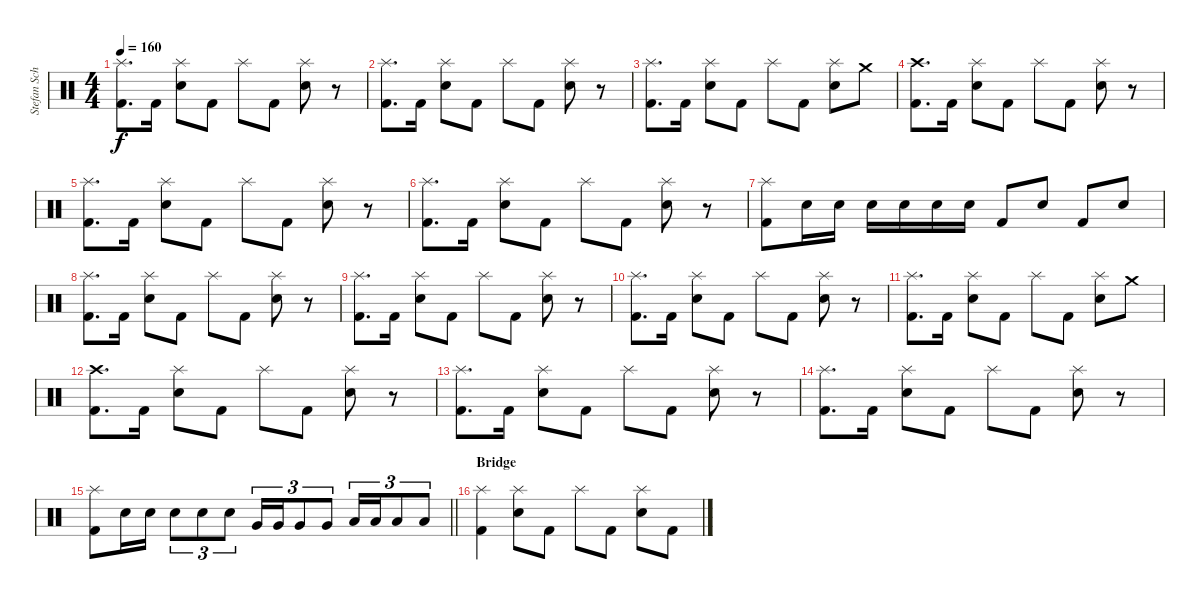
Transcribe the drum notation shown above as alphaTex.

\track ("Stefan Schwarzmann" "Stefan Sch") {instrument percussion}
\staff {score}
\articulation defaults
\ts (4 4)
\tempo 160
\clef neutral
\ks c
("Splash (hit)" "Kick (hit) 2").8{d dy f} "Kick (hit) 2".16 ("Splash (hit)" "Snare (hit) 2").8 "Kick (hit) 2".8 "Splash (hit)".8 "Kick (hit) 2".8 ("Splash (hit)" "Snare (hit) 2").8 r.8 |
("Splash (hit)" "Kick (hit) 2").8{d} "Kick (hit) 2".16 ("Splash (hit)" "Snare (hit) 2").8 "Kick (hit) 2".8 "Splash (hit)".8 "Kick (hit) 2".8 ("Splash (hit)" "Snare (hit) 2").8 r.8 |
("Splash (hit)" "Kick (hit) 2").8{d} "Kick (hit) 2".16 ("Splash (hit)" "Snare (hit) 2").8 "Kick (hit) 2".8 "Splash (hit)".8 "Kick (hit) 2".8 ("Splash (hit)" "Snare (hit) 2").8 "Crash medium (hit)".8 |
("Crash high (hit)" "Kick (hit) 2").8{d} "Kick (hit) 2".16 ("Splash (hit)" "Snare (hit) 2").8 "Kick (hit) 2".8 "Splash (hit)".8 "Kick (hit) 2".8 ("Splash (hit)" "Snare (hit) 2").8 r.8 |
("Splash (hit)" "Kick (hit) 2").8{d} "Kick (hit) 2".16 ("Splash (hit)" "Snare (hit) 2").8 "Kick (hit) 2".8 "Splash (hit)".8 "Kick (hit) 2".8 ("Splash (hit)" "Snare (hit) 2").8 r.8 |
("Splash (hit)" "Kick (hit) 2").8{d} "Kick (hit) 2".16 ("Splash (hit)" "Snare (hit) 2").8 "Kick (hit) 2".8 "Splash (hit)".8 "Kick (hit) 2".8 ("Splash (hit)" "Snare (hit) 2").8 r.8 |
("Splash (hit)" "Kick (hit) 2").8 "Snare (hit) 2".16 "Snare (hit) 2".16 "Snare (hit) 2".16 "Snare (hit) 2".16 "Snare (hit) 2".16 "Snare (hit) 2".16 "Kick (hit) 2".8 "Snare (hit) 2".8 "Kick (hit) 2".8 "Snare (hit) 2".8 |
("Splash (hit)" "Kick (hit) 2").8{d} "Kick (hit) 2".16 ("Splash (hit)" "Snare (hit) 2").8 "Kick (hit) 2".8 "Splash (hit)".8 "Kick (hit) 2".8 ("Splash (hit)" "Snare (hit) 2").8 r.8 |
("Splash (hit)" "Kick (hit) 2").8{d} "Kick (hit) 2".16 ("Splash (hit)" "Snare (hit) 2").8 "Kick (hit) 2".8 "Splash (hit)".8 "Kick (hit) 2".8 ("Splash (hit)" "Snare (hit) 2").8 r.8 |
("Splash (hit)" "Kick (hit) 2").8{d} "Kick (hit) 2".16 ("Splash (hit)" "Snare (hit) 2").8 "Kick (hit) 2".8 "Splash (hit)".8 "Kick (hit) 2".8 ("Splash (hit)" "Snare (hit) 2").8 r.8 |
("Splash (hit)" "Kick (hit) 2").8{d} "Kick (hit) 2".16 ("Splash (hit)" "Snare (hit) 2").8 "Kick (hit) 2".8 "Splash (hit)".8 "Kick (hit) 2".8 ("Splash (hit)" "Snare (hit) 2").8 "Crash medium (hit)".8 |
("Crash high (hit)" "Kick (hit) 2").8{d} "Kick (hit) 2".16 ("Splash (hit)" "Snare (hit) 2").8 "Kick (hit) 2".8 "Splash (hit)".8 "Kick (hit) 2".8 ("Splash (hit)" "Snare (hit) 2").8 r.8 |
("Splash (hit)" "Kick (hit) 2").8{d} "Kick (hit) 2".16 ("Splash (hit)" "Snare (hit) 2").8 "Kick (hit) 2".8 "Splash (hit)".8 "Kick (hit) 2".8 ("Splash (hit)" "Snare (hit) 2").8 r.8 |
("Splash (hit)" "Kick (hit) 2").8{d} "Kick (hit) 2".16 ("Splash (hit)" "Snare (hit) 2").8 "Kick (hit) 2".8 "Splash (hit)".8 "Kick (hit) 2".8 ("Splash (hit)" "Snare (hit) 2").8 r.8 |
\barLineRight lightlight
("Splash (hit)" "Kick (hit) 2").8 "Snare (hit) 2".16 "Snare (hit) 2".16 "Snare (hit) 2".8{tu (3 2)} "Snare (hit) 2".8{tu (3 2)} "Snare (hit) 2".8{tu (3 2)} "Very Low Tom (hit)".16{tu (3 2)} "Very Low Tom (hit)".16{tu (3 2)} "Very Low Tom (hit)".8{tu (3 2)} "Very Low Tom (hit)".8{tu (3 2)} "Low Floor Tom (hit)".16{tu (3 2)} "Low Floor Tom (hit)".16{tu (3 2)} "Low Floor Tom (hit)".8{tu (3 2)} "Low Floor Tom (hit)".8{tu (3 2)} |
\section ("" "Bridge")
("Splash (hit)" "Kick (hit) 2").4 ("Splash (hit)" "Snare (hit) 2").8 "Kick (hit) 2".8 "Splash (hit)".8 "Kick (hit) 2".8 ("Splash (hit)" "Snare (hit) 2").8 "Kick (hit) 2".8
